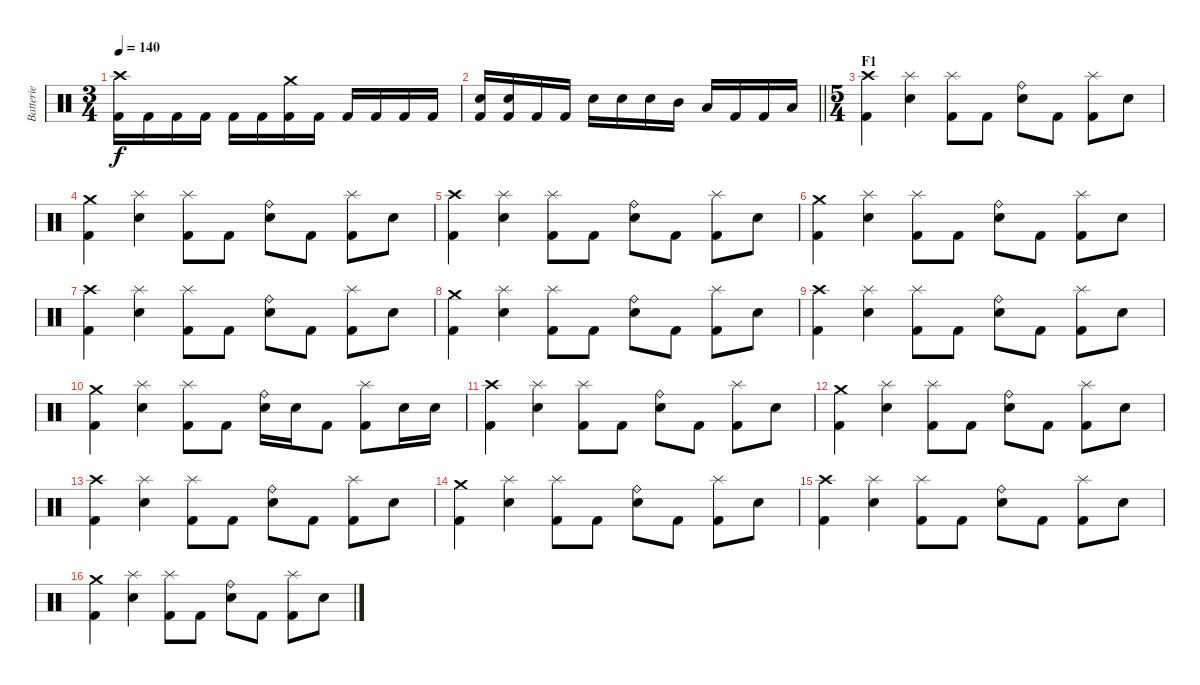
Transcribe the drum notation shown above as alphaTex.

\track ("Batterie" "Batterie") {instrument percussion}
\staff {score}
\articulation defaults
\ts (3 4)
\tempo 140
\clef neutral
\ks c
("Crash high (hit)" "Kick (hit) 2").16{dy f} "Kick (hit) 2".16 "Kick (hit) 2".16 "Kick (hit) 2".16 "Kick (hit) 2".16 "Kick (hit) 2".16 ("Crash medium (hit)" "Kick (hit) 2").16 "Kick (hit) 2".16 "Kick (hit) 2".16 "Kick (hit) 2".16 "Kick (hit) 2".16 "Kick (hit) 2".16 |
\barLineRight lightlight
("Electric Snare (hit)" "Kick (hit) 2").16 ("Electric Snare (hit)" "Kick (hit) 2").16 "Kick (hit) 2".16 "Kick (hit) 2".16 "Electric Snare (hit)".16 "Electric Snare (hit)".16 "Electric Snare (hit)".16 "Mid Tom (hit)".16 "Low Tom (hit)".16 "Kick (hit) 2".16 "Kick (hit) 2".16 "Low Tom (hit)".16 |
\ts (5 4)
\section ("" "F1")
("Crash high (hit)" "Kick (hit) 2").4 ("Splash (hit)" "Electric Snare (hit)").4 ("Splash (hit)" "Kick (hit) 2").8 "Kick (hit) 2".8 ("Ride (bell)" "Electric Snare (hit)").8 "Kick (hit) 2".8 ("Splash (hit)" "Kick (hit) 2").8 "Electric Snare (hit)".8 |
("Crash medium (hit)" "Kick (hit) 2").4 ("Splash (hit)" "Electric Snare (hit)").4 ("Splash (hit)" "Kick (hit) 2").8 "Kick (hit) 2".8 ("Ride (bell)" "Electric Snare (hit)").8 "Kick (hit) 2".8 ("Splash (hit)" "Kick (hit) 2").8 "Electric Snare (hit)".8 |
("Crash high (hit)" "Kick (hit) 2").4 ("Splash (hit)" "Electric Snare (hit)").4 ("Splash (hit)" "Kick (hit) 2").8 "Kick (hit) 2".8 ("Ride (bell)" "Electric Snare (hit)").8 "Kick (hit) 2".8 ("Splash (hit)" "Kick (hit) 2").8 "Electric Snare (hit)".8 |
("Crash medium (hit)" "Kick (hit) 2").4 ("Splash (hit)" "Electric Snare (hit)").4 ("Splash (hit)" "Kick (hit) 2").8 "Kick (hit) 2".8 ("Ride (bell)" "Electric Snare (hit)").8 "Kick (hit) 2".8 ("Splash (hit)" "Kick (hit) 2").8 "Electric Snare (hit)".8 |
("Crash high (hit)" "Kick (hit) 2").4 ("Splash (hit)" "Electric Snare (hit)").4 ("Splash (hit)" "Kick (hit) 2").8 "Kick (hit) 2".8 ("Ride (bell)" "Electric Snare (hit)").8 "Kick (hit) 2".8 ("Splash (hit)" "Kick (hit) 2").8 "Electric Snare (hit)".8 |
("Crash medium (hit)" "Kick (hit) 2").4 ("Splash (hit)" "Electric Snare (hit)").4 ("Splash (hit)" "Kick (hit) 2").8 "Kick (hit) 2".8 ("Ride (bell)" "Electric Snare (hit)").8 "Kick (hit) 2".8 ("Splash (hit)" "Kick (hit) 2").8 "Electric Snare (hit)".8 |
("Crash high (hit)" "Kick (hit) 2").4 ("Splash (hit)" "Electric Snare (hit)").4 ("Splash (hit)" "Kick (hit) 2").8 "Kick (hit) 2".8 ("Ride (bell)" "Electric Snare (hit)").8 "Kick (hit) 2".8 ("Splash (hit)" "Kick (hit) 2").8 "Electric Snare (hit)".8 |
("Crash medium (hit)" "Kick (hit) 2").4 ("Splash (hit)" "Electric Snare (hit)").4 ("Splash (hit)" "Kick (hit) 2").8 "Kick (hit) 2".8 ("Ride (bell)" "Electric Snare (hit)").16 "Electric Snare (hit)".16 "Kick (hit) 2".8 ("Splash (hit)" "Kick (hit) 2").8 "Electric Snare (hit)".16 "Electric Snare (hit)".16 |
("Crash high (hit)" "Kick (hit) 2").4 ("Splash (hit)" "Electric Snare (hit)").4 ("Splash (hit)" "Kick (hit) 2").8 "Kick (hit) 2".8 ("Ride (bell)" "Electric Snare (hit)").8 "Kick (hit) 2".8 ("Splash (hit)" "Kick (hit) 2").8 "Electric Snare (hit)".8 |
("Crash medium (hit)" "Kick (hit) 2").4 ("Splash (hit)" "Electric Snare (hit)").4 ("Splash (hit)" "Kick (hit) 2").8 "Kick (hit) 2".8 ("Ride (bell)" "Electric Snare (hit)").8 "Kick (hit) 2".8 ("Splash (hit)" "Kick (hit) 2").8 "Electric Snare (hit)".8 |
("Crash high (hit)" "Kick (hit) 2").4 ("Splash (hit)" "Electric Snare (hit)").4 ("Splash (hit)" "Kick (hit) 2").8 "Kick (hit) 2".8 ("Ride (bell)" "Electric Snare (hit)").8 "Kick (hit) 2".8 ("Splash (hit)" "Kick (hit) 2").8 "Electric Snare (hit)".8 |
("Crash medium (hit)" "Kick (hit) 2").4 ("Splash (hit)" "Electric Snare (hit)").4 ("Splash (hit)" "Kick (hit) 2").8 "Kick (hit) 2".8 ("Ride (bell)" "Electric Snare (hit)").8 "Kick (hit) 2".8 ("Splash (hit)" "Kick (hit) 2").8 "Electric Snare (hit)".8 |
("Crash high (hit)" "Kick (hit) 2").4 ("Splash (hit)" "Electric Snare (hit)").4 ("Splash (hit)" "Kick (hit) 2").8 "Kick (hit) 2".8 ("Ride (bell)" "Electric Snare (hit)").8 "Kick (hit) 2".8 ("Splash (hit)" "Kick (hit) 2").8 "Electric Snare (hit)".8 |
("Crash medium (hit)" "Kick (hit) 2").4 ("Splash (hit)" "Electric Snare (hit)").4 ("Splash (hit)" "Kick (hit) 2").8 "Kick (hit) 2".8 ("Ride (bell)" "Electric Snare (hit)").8 "Kick (hit) 2".8 ("Splash (hit)" "Kick (hit) 2").8 "Electric Snare (hit)".8
